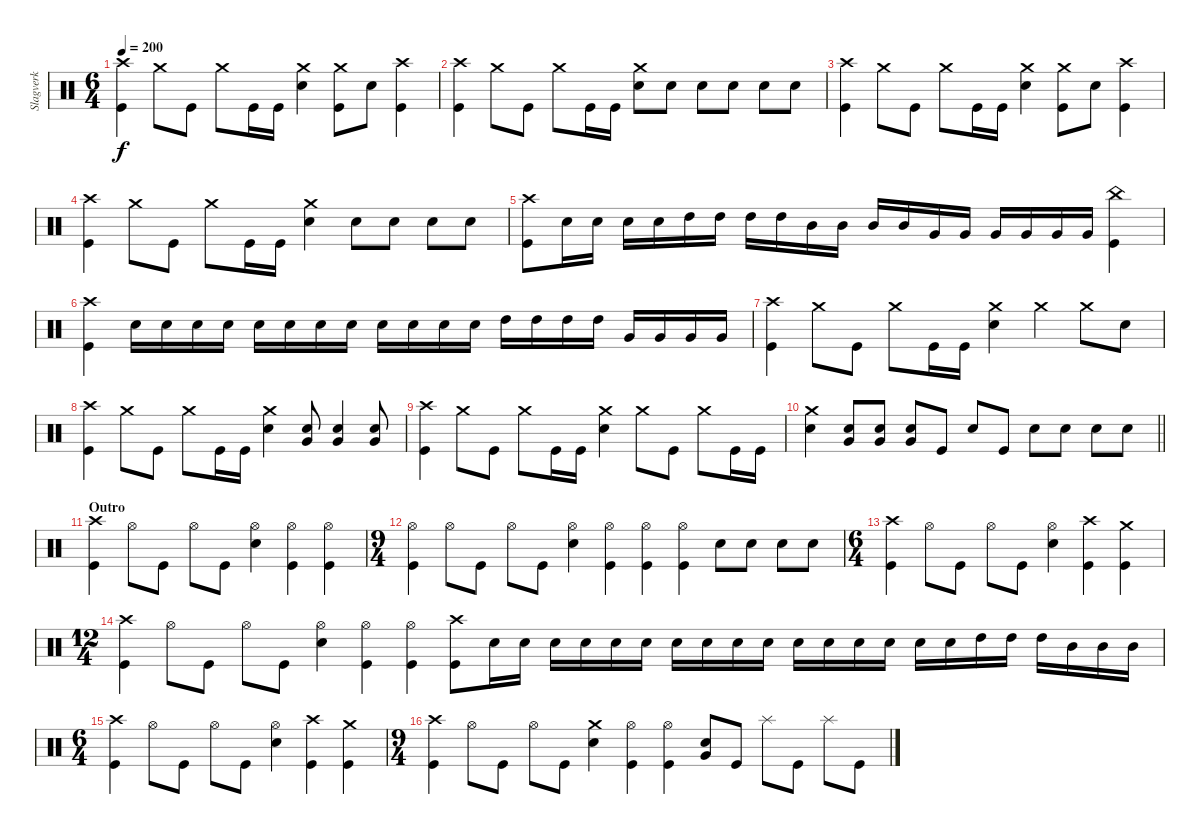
\track ("Slagverk" "Slagverk") {instrument percussion}
\staff {score}
\articulation defaults
\ts (6 4)
\tempo 200
\clef neutral
\ks c
("Crash high (hit)" "Kick (hit)").4{dy f} "Crash medium (hit)".8 "Kick (hit)".8 "Crash medium (hit)".8 "Kick (hit)".16 "Kick (hit)".16 ("Crash medium (hit)" "Electric Snare (hit)").4 ("Crash medium (hit)" "Kick (hit)").8 "Electric Snare (hit)".8 ("Crash high (hit)" "Kick (hit)").4 |
("Crash high (hit)" "Kick (hit)").4 "Crash medium (hit)".8 "Kick (hit)".8 "Crash medium (hit)".8 "Kick (hit)".16 "Kick (hit)".16 ("Crash medium (hit)" "Electric Snare (hit)").8 "Electric Snare (hit)".8 "Electric Snare (hit)".8 "Electric Snare (hit)".8 "Electric Snare (hit)".8 "Electric Snare (hit)".8 |
("Crash high (hit)" "Kick (hit)").4 "Crash medium (hit)".8 "Kick (hit)".8 "Crash medium (hit)".8 "Kick (hit)".16 "Kick (hit)".16 ("Crash medium (hit)" "Electric Snare (hit)").4 ("Crash medium (hit)" "Kick (hit)").8 "Electric Snare (hit)".8 ("Crash high (hit)" "Kick (hit)").4 |
("Crash high (hit)" "Kick (hit)").4 "Crash medium (hit)".8 "Kick (hit)".8 "Crash medium (hit)".8 "Kick (hit)".16 "Kick (hit)".16 ("Crash medium (hit)" "Electric Snare (hit)").4 "Electric Snare (hit)".8 "Electric Snare (hit)".8 "Electric Snare (hit)".8 "Electric Snare (hit)".8 |
("Crash high (hit)" "Kick (hit)").8 "Electric Snare (hit)".16 "Electric Snare (hit)".16 "Electric Snare (hit)".16 "Electric Snare (hit)".16 "High Tom (hit)".16 "High Tom (hit)".16 "High Tom (hit)".16 "High Tom (hit)".16 "Mid Tom (hit)".16 "Mid Tom (hit)".16 "Mid Tom (hit)".16 "Mid Tom (hit)".16 "Very Low Tom (hit)".16 "Very Low Tom (hit)".16 "Very Low Tom (hit)".16 "Very Low Tom (hit)".16 "Very Low Tom (hit)".16 "Very Low Tom (hit)".16 ("China (hit)" "Kick (hit)").4 |
("Crash high (hit)" "Kick (hit)").4 "Electric Snare (hit)".16 "Electric Snare (hit)".16 "Electric Snare (hit)".16 "Electric Snare (hit)".16 "Electric Snare (hit)".16 "Electric Snare (hit)".16 "Electric Snare (hit)".16 "Electric Snare (hit)".16 "Electric Snare (hit)".16 "Electric Snare (hit)".16 "Electric Snare (hit)".16 "Electric Snare (hit)".16 "High Tom (hit)".16 "High Tom (hit)".16 "High Tom (hit)".16 "High Tom (hit)".16 "Very Low Tom (hit)".16 "Very Low Tom (hit)".16 "Very Low Tom (hit)".16 "Very Low Tom (hit)".16 |
("Crash high (hit)" "Kick (hit)").4 "Crash medium (hit)".8 "Kick (hit)".8 "Crash medium (hit)".8 "Kick (hit)".16 "Kick (hit)".16 ("Crash medium (hit)" "Electric Snare (hit)").4 "Crash medium (hit)".4 "Crash medium (hit)".8 "Electric Snare (hit)".8 |
("Crash high (hit)" "Kick (hit)").4 "Crash medium (hit)".8 "Kick (hit)".8 "Crash medium (hit)".8 "Kick (hit)".16 "Kick (hit)".16 ("Crash medium (hit)" "Electric Snare (hit)").4 ("Electric Snare (hit)" "Very Low Tom (hit)").8 ("Electric Snare (hit)" "Very Low Tom (hit)").4 ("Electric Snare (hit)" "Very Low Tom (hit)").8 |
("Crash high (hit)" "Kick (hit)").4 "Crash medium (hit)".8 "Kick (hit)".8 "Crash medium (hit)".8 "Kick (hit)".16 "Kick (hit)".16 ("Crash medium (hit)" "Electric Snare (hit)").4 "Crash medium (hit)".8 "Kick (hit)".8 "Crash medium (hit)".8 "Kick (hit)".16 "Kick (hit)".16 |
\barLineRight lightlight
("Crash medium (hit)" "Electric Snare (hit)").4 ("Electric Snare (hit)" "Very Low Tom (hit)").8 ("Electric Snare (hit)" "Very Low Tom (hit)").8 ("Electric Snare (hit)" "Very Low Tom (hit)").8 "Kick (hit)".8 "Electric Snare (hit)".8 "Kick (hit)".8 "Electric Snare (hit)".8 "Electric Snare (hit)".8 "Electric Snare (hit)".8 "Electric Snare (hit)".8 |
\section ("" "Outro")
("Crash high (hit)" "Kick (hit)").4 "Hi-Hat (open)".8 "Kick (hit)".8 "Hi-Hat (open)".8 "Kick (hit)".8 ("Hi-Hat (open)" "Electric Snare (hit)").4 ("Hi-Hat (open)" "Kick (hit)").4 ("Hi-Hat (open)" "Kick (hit)").4 |
\ts (9 4)
("Hi-Hat (open)" "Kick (hit)").4 "Hi-Hat (open)".8 "Kick (hit)".8 "Hi-Hat (open)".8 "Kick (hit)".8 ("Hi-Hat (open)" "Electric Snare (hit)").4 ("Hi-Hat (open)" "Kick (hit)").4 ("Hi-Hat (open)" "Kick (hit)").4 ("Hi-Hat (open)" "Kick (hit)").4 "Electric Snare (hit)".8 "Electric Snare (hit)".8 "Electric Snare (hit)".8 "Electric Snare (hit)".8 |
\ts (6 4)
("Crash high (hit)" "Kick (hit)").4 "Hi-Hat (open)".8 "Kick (hit)".8 "Hi-Hat (open)".8 "Kick (hit)".8 ("Hi-Hat (open)" "Electric Snare (hit)").4 ("Crash high (hit)" "Kick (hit)").4 ("Crash medium (hit)" "Kick (hit)").4 |
\ts (12 4)
("Crash high (hit)" "Kick (hit)").4 "Hi-Hat (open)".8 "Kick (hit)".8 "Hi-Hat (open)".8 "Kick (hit)".8 ("Hi-Hat (open)" "Electric Snare (hit)").4 ("Hi-Hat (open)" "Kick (hit)").4 ("Hi-Hat (open)" "Kick (hit)").4 ("Crash high (hit)" "Kick (hit)").8 "Electric Snare (hit)".16 "Electric Snare (hit)".16 "Electric Snare (hit)".16 "Electric Snare (hit)".16 "Electric Snare (hit)".16 "Electric Snare (hit)".16 "Electric Snare (hit)".16 "Electric Snare (hit)".16 "Electric Snare (hit)".16 "Electric Snare (hit)".16 "Electric Snare (hit)".16 "Electric Snare (hit)".16 "Electric Snare (hit)".16 "Electric Snare (hit)".16 "Electric Snare (hit)".16 "Electric Snare (hit)".16 "High Tom (hit)".16 "High Tom (hit)".16 "High Tom (hit)".16 "Mid Tom (hit)".16 "Mid Tom (hit)".16 "Mid Tom (hit)".16 |
\ts (6 4)
("Crash high (hit)" "Kick (hit)").4 "Hi-Hat (open)".8 "Kick (hit)".8 "Hi-Hat (open)".8 "Kick (hit)".8 ("Hi-Hat (open)" "Electric Snare (hit)").4 ("Crash high (hit)" "Kick (hit)").4 ("Crash medium (hit)" "Kick (hit)").4 |
\ts (9 4)
("Crash high (hit)" "Kick (hit)").4 "Hi-Hat (open)".8 "Kick (hit)".8 "Hi-Hat (open)".8 "Kick (hit)".8 ("Crash medium (hit)" "Electric Snare (hit)").4 ("Hi-Hat (open)" "Kick (hit)").4 ("Hi-Hat (open)" "Kick (hit)").4 ("Very Low Tom (hit)" "Electric Snare (hit)").8 "Kick (hit)".8 "Splash (hit)".8 "Kick (hit)".8 "Splash (hit)".8 "Kick (hit)".8
